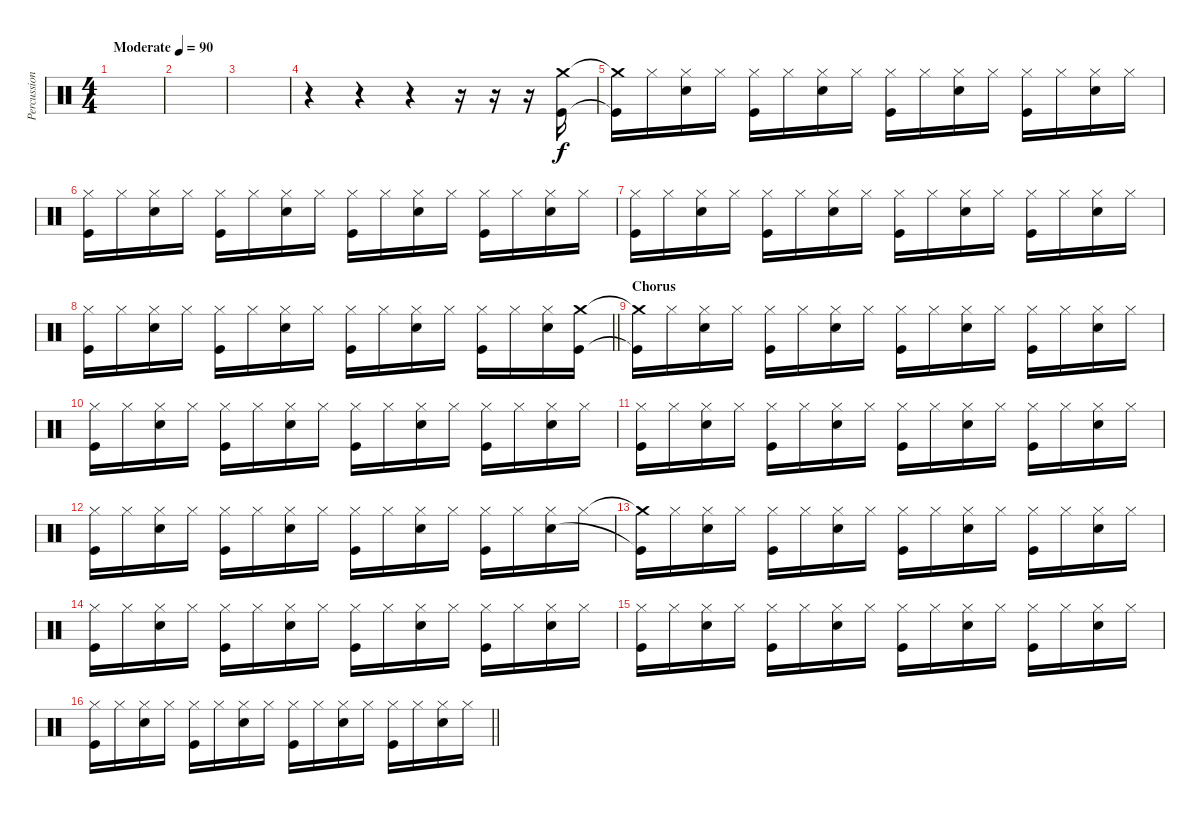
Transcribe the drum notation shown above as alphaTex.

\track ("Percussion" "Percussion") {instrument percussion}
\staff {score}
\articulation defaults
\ts (4 4)
\tempo (90 "Moderate")
\clef neutral
\ks c
|
|
|
r.4 r.4 r.4 r.16 r.16 r.16 ("Crash medium (hit)" "Kick (hit)").16 |
("Crash medium (hit)"{t} "Kick (hit)"{t}).16 "Hi-Hat (closed)".16 ("Hi-Hat (closed)" "Snare (hit) 2").16 "Hi-Hat (closed)".16 ("Hi-Hat (closed)" "Kick (hit)").16 "Hi-Hat (closed)".16 ("Hi-Hat (closed)" "Snare (hit) 2").16 "Hi-Hat (closed)".16 ("Hi-Hat (closed)" "Kick (hit)").16 "Hi-Hat (closed)".16 ("Hi-Hat (closed)" "Snare (hit) 2").16 "Hi-Hat (closed)".16 ("Hi-Hat (closed)" "Kick (hit)").16 "Hi-Hat (closed)".16 ("Hi-Hat (closed)" "Snare (hit) 2").16 "Hi-Hat (closed)".16 |
("Hi-Hat (closed)" "Kick (hit)").16 "Hi-Hat (closed)".16 ("Hi-Hat (closed)" "Snare (hit) 2").16 "Hi-Hat (closed)".16 ("Hi-Hat (closed)" "Kick (hit)").16 "Hi-Hat (closed)".16 ("Hi-Hat (closed)" "Snare (hit) 2").16 "Hi-Hat (closed)".16 ("Hi-Hat (closed)" "Kick (hit)").16 "Hi-Hat (closed)".16 ("Hi-Hat (closed)" "Snare (hit) 2").16 "Hi-Hat (closed)".16 ("Hi-Hat (closed)" "Kick (hit)").16 "Hi-Hat (closed)".16 ("Hi-Hat (closed)" "Snare (hit) 2").16 "Hi-Hat (closed)".16 |
("Hi-Hat (closed)" "Kick (hit)").16 "Hi-Hat (closed)".16 ("Hi-Hat (closed)" "Snare (hit) 2").16 "Hi-Hat (closed)".16 ("Hi-Hat (closed)" "Kick (hit)").16 "Hi-Hat (closed)".16 ("Hi-Hat (closed)" "Snare (hit) 2").16 "Hi-Hat (closed)".16 ("Hi-Hat (closed)" "Kick (hit)").16 "Hi-Hat (closed)".16 ("Hi-Hat (closed)" "Snare (hit) 2").16 "Hi-Hat (closed)".16 ("Hi-Hat (closed)" "Kick (hit)").16 "Hi-Hat (closed)".16 ("Hi-Hat (closed)" "Snare (hit) 2").16 "Hi-Hat (closed)".16 |
\barLineRight lightlight
("Hi-Hat (closed)" "Kick (hit)").16 "Hi-Hat (closed)".16 ("Hi-Hat (closed)" "Snare (hit) 2").16 "Hi-Hat (closed)".16 ("Hi-Hat (closed)" "Kick (hit)").16 "Hi-Hat (closed)".16 ("Hi-Hat (closed)" "Snare (hit) 2").16 "Hi-Hat (closed)".16 ("Hi-Hat (closed)" "Kick (hit)").16 "Hi-Hat (closed)".16 ("Hi-Hat (closed)" "Snare (hit) 2").16 "Hi-Hat (closed)".16 ("Hi-Hat (closed)" "Kick (hit)").16 "Hi-Hat (closed)".16 ("Hi-Hat (closed)" "Snare (hit) 2").16 ("Crash medium (hit)" "Kick (hit)").16 |
\section ("" "Chorus")
("Crash medium (hit)"{t} "Kick (hit)"{t}).16 "Hi-Hat (closed)".16 ("Hi-Hat (closed)" "Snare (hit) 2").16 "Hi-Hat (closed)".16 ("Hi-Hat (closed)" "Kick (hit)").16 "Hi-Hat (closed)".16 ("Hi-Hat (closed)" "Snare (hit) 2").16 "Hi-Hat (closed)".16 ("Hi-Hat (closed)" "Kick (hit)").16 "Hi-Hat (closed)".16 ("Hi-Hat (closed)" "Snare (hit) 2").16 "Hi-Hat (closed)".16 ("Hi-Hat (closed)" "Kick (hit)").16 "Hi-Hat (closed)".16 ("Hi-Hat (closed)" "Snare (hit) 2").16 "Hi-Hat (closed)".16 |
("Hi-Hat (closed)" "Kick (hit)").16 "Hi-Hat (closed)".16 ("Hi-Hat (closed)" "Snare (hit) 2").16 "Hi-Hat (closed)".16 ("Hi-Hat (closed)" "Kick (hit)").16 "Hi-Hat (closed)".16 ("Hi-Hat (closed)" "Snare (hit) 2").16 "Hi-Hat (closed)".16 ("Hi-Hat (closed)" "Kick (hit)").16 "Hi-Hat (closed)".16 ("Hi-Hat (closed)" "Snare (hit) 2").16 "Hi-Hat (closed)".16 ("Hi-Hat (closed)" "Kick (hit)").16 "Hi-Hat (closed)".16 ("Hi-Hat (closed)" "Snare (hit) 2").16 "Hi-Hat (closed)".16 |
("Hi-Hat (closed)" "Kick (hit)").16 "Hi-Hat (closed)".16 ("Hi-Hat (closed)" "Snare (hit) 2").16 "Hi-Hat (closed)".16 ("Hi-Hat (closed)" "Kick (hit)").16 "Hi-Hat (closed)".16 ("Hi-Hat (closed)" "Snare (hit) 2").16 "Hi-Hat (closed)".16 ("Hi-Hat (closed)" "Kick (hit)").16 "Hi-Hat (closed)".16 ("Hi-Hat (closed)" "Snare (hit) 2").16 "Hi-Hat (closed)".16 ("Hi-Hat (closed)" "Kick (hit)").16 "Hi-Hat (closed)".16 ("Hi-Hat (closed)" "Snare (hit) 2").16 "Hi-Hat (closed)".16 |
("Hi-Hat (closed)" "Kick (hit)").16 "Hi-Hat (closed)".16 ("Hi-Hat (closed)" "Snare (hit) 2").16 "Hi-Hat (closed)".16 ("Hi-Hat (closed)" "Kick (hit)").16 "Hi-Hat (closed)".16 ("Hi-Hat (closed)" "Snare (hit) 2").16 "Hi-Hat (closed)".16 ("Hi-Hat (closed)" "Kick (hit)").16 "Hi-Hat (closed)".16 ("Hi-Hat (closed)" "Snare (hit) 2").16 "Hi-Hat (closed)".16 ("Hi-Hat (closed)" "Kick (hit)").16 "Hi-Hat (closed)".16 ("Hi-Hat (closed)" "Snare (hit) 2").16 "Hi-Hat (closed)".16 |
("Crash medium (hit)"{t} "Kick (hit)"{t}).16 "Hi-Hat (closed)".16 ("Hi-Hat (closed)" "Snare (hit) 2").16 "Hi-Hat (closed)".16 ("Hi-Hat (closed)" "Kick (hit)").16 "Hi-Hat (closed)".16 ("Hi-Hat (closed)" "Snare (hit) 2").16 "Hi-Hat (closed)".16 ("Hi-Hat (closed)" "Kick (hit)").16 "Hi-Hat (closed)".16 ("Hi-Hat (closed)" "Snare (hit) 2").16 "Hi-Hat (closed)".16 ("Hi-Hat (closed)" "Kick (hit)").16 "Hi-Hat (closed)".16 ("Hi-Hat (closed)" "Snare (hit) 2").16 "Hi-Hat (closed)".16 |
("Hi-Hat (closed)" "Kick (hit)").16 "Hi-Hat (closed)".16 ("Hi-Hat (closed)" "Snare (hit) 2").16 "Hi-Hat (closed)".16 ("Hi-Hat (closed)" "Kick (hit)").16 "Hi-Hat (closed)".16 ("Hi-Hat (closed)" "Snare (hit) 2").16 "Hi-Hat (closed)".16 ("Hi-Hat (closed)" "Kick (hit)").16 "Hi-Hat (closed)".16 ("Hi-Hat (closed)" "Snare (hit) 2").16 "Hi-Hat (closed)".16 ("Hi-Hat (closed)" "Kick (hit)").16 "Hi-Hat (closed)".16 ("Hi-Hat (closed)" "Snare (hit) 2").16 "Hi-Hat (closed)".16 |
("Hi-Hat (closed)" "Kick (hit)").16 "Hi-Hat (closed)".16 ("Hi-Hat (closed)" "Snare (hit) 2").16 "Hi-Hat (closed)".16 ("Hi-Hat (closed)" "Kick (hit)").16 "Hi-Hat (closed)".16 ("Hi-Hat (closed)" "Snare (hit) 2").16 "Hi-Hat (closed)".16 ("Hi-Hat (closed)" "Kick (hit)").16 "Hi-Hat (closed)".16 ("Hi-Hat (closed)" "Snare (hit) 2").16 "Hi-Hat (closed)".16 ("Hi-Hat (closed)" "Kick (hit)").16 "Hi-Hat (closed)".16 ("Hi-Hat (closed)" "Snare (hit) 2").16 "Hi-Hat (closed)".16 |
\barLineRight lightlight
("Hi-Hat (closed)" "Kick (hit)").16 "Hi-Hat (closed)".16 ("Hi-Hat (closed)" "Snare (hit) 2").16 "Hi-Hat (closed)".16 ("Hi-Hat (closed)" "Kick (hit)").16 "Hi-Hat (closed)".16 ("Hi-Hat (closed)" "Snare (hit) 2").16 "Hi-Hat (closed)".16 ("Hi-Hat (closed)" "Kick (hit)").16 "Hi-Hat (closed)".16 ("Hi-Hat (closed)" "Snare (hit) 2").16 "Hi-Hat (closed)".16 ("Hi-Hat (closed)" "Kick (hit)").16 "Hi-Hat (closed)".16 ("Hi-Hat (closed)" "Snare (hit) 2").16 "Hi-Hat (closed)".16
